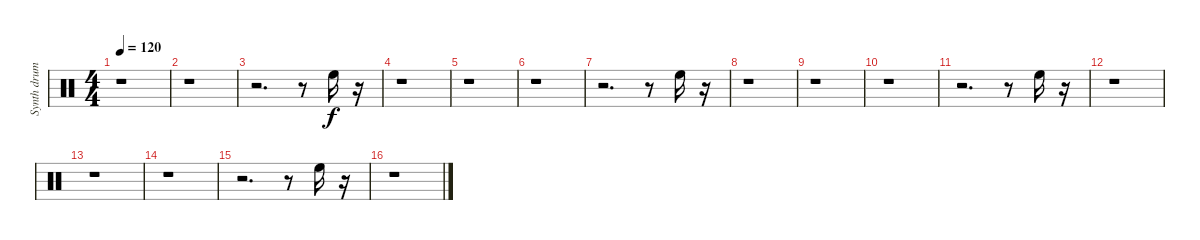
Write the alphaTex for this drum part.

\track ("Synth drum" "Synth drum") {instrument percussion}
\staff {score}
\articulation defaults
\ts (4 4)
\tempo 120
\clef neutral
\ks c
r.1{dy f} |
r.1 |
r.2{d} r.8 "High Floor Tom (hit)".16 r.16 |
r.1 |
r.1 |
r.1 |
r.2{d} r.8 "High Floor Tom (hit)".16 r.16 |
r.1 |
r.1 |
r.1 |
r.2{d} r.8 "High Floor Tom (hit)".16 r.16 |
r.1 |
r.1 |
r.1 |
r.2{d} r.8 "High Floor Tom (hit)".16 r.16 |
r.1
